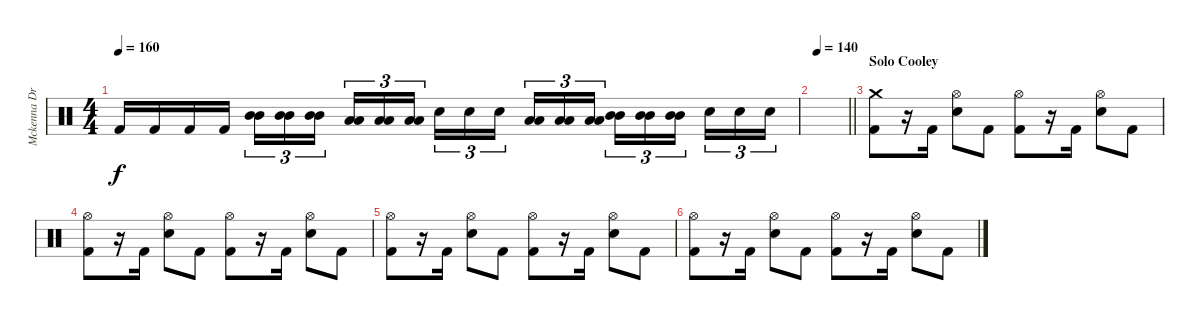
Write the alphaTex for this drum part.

\track ("Mckenna Drums" "Mckenna Dr") {instrument percussion}
\staff {score}
\articulation defaults
\ts (4 4)
\tempo 160
\clef neutral
\ks c "Kick (hit) 2".16{dy f} "Kick (hit) 2".16 "Kick (hit) 2".16 "Kick (hit) 2".16
("Mid Tom (hit)" "Mid Tom (hit)").16{tu (3 2)} ("Mid Tom (hit)" "Mid Tom (hit)").16{tu (3 2)} ("Mid Tom (hit)" "Mid Tom (hit)").16{tu (3 2) beam splitsecondary} ("Low Tom (hit)" "Low Tom (hit)").16{tu (3 2)} ("Low Tom (hit)" "Low Tom (hit)").16{tu (3 2)} ("Low Tom (hit)" "Low Tom (hit)").16{tu (3 2)} "Electric Snare (hit)".16{tu (3 2)} "Electric Snare (hit)".16{tu (3 2)} "Electric Snare (hit)".16{tu (3 2) beam splitsecondary} ("Low Tom (hit)" "Low Tom (hit)").16{tu (3 2)} ("Low Tom (hit)" "Low Tom (hit)").16{tu (3 2)} ("Low Tom (hit)" "Low Tom (hit)").16{tu (3 2)} ("Mid Tom (hit)" "Mid Tom (hit)").16{tu (3 2)} ("Mid Tom (hit)" "Mid Tom (hit)").16{tu (3 2)} ("Mid Tom (hit)" "Mid Tom (hit)").16{tu (3 2) beam splitsecondary} "Electric Snare (hit)".16{tu (3 2)} "Electric Snare (hit)".16{tu (3 2)} "Electric Snare (hit)".16{tu (3 2)} |
\tempo (140 0.125)
\barLineRight lightlight
|
\section ("" "Solo Cooley")
("Crash medium (hit)" "Kick (hit) 2").8 r.16 "Kick (hit) 2".16 ("Hi-Hat (open)" "Electric Snare (hit)").8 "Kick (hit) 2".8 ("Hi-Hat (open)" "Kick (hit) 2").8 r.16 "Kick (hit) 2".16 ("Hi-Hat (open)" "Electric Snare (hit)").8 "Kick (hit) 2".8 |
("Hi-Hat (open)" "Kick (hit) 2").8 r.16 "Kick (hit) 2".16 ("Hi-Hat (open)" "Electric Snare (hit)").8 "Kick (hit) 2".8 ("Hi-Hat (open)" "Kick (hit) 2").8 r.16 "Kick (hit) 2".16 ("Hi-Hat (open)" "Electric Snare (hit)").8 "Kick (hit) 2".8 |
("Hi-Hat (open)" "Kick (hit) 2").8 r.16 "Kick (hit) 2".16 ("Hi-Hat (open)" "Electric Snare (hit)").8 "Kick (hit) 2".8 ("Hi-Hat (open)" "Kick (hit) 2").8 r.16 "Kick (hit) 2".16 ("Hi-Hat (open)" "Electric Snare (hit)").8 "Kick (hit) 2".8 |
("Hi-Hat (open)" "Kick (hit) 2").8 r.16 "Kick (hit) 2".16 ("Hi-Hat (open)" "Electric Snare (hit)").8 "Kick (hit) 2".8 ("Hi-Hat (open)" "Kick (hit) 2").8 r.16 "Kick (hit) 2".16 ("Hi-Hat (open)" "Electric Snare (hit)").8 "Kick (hit) 2".8
